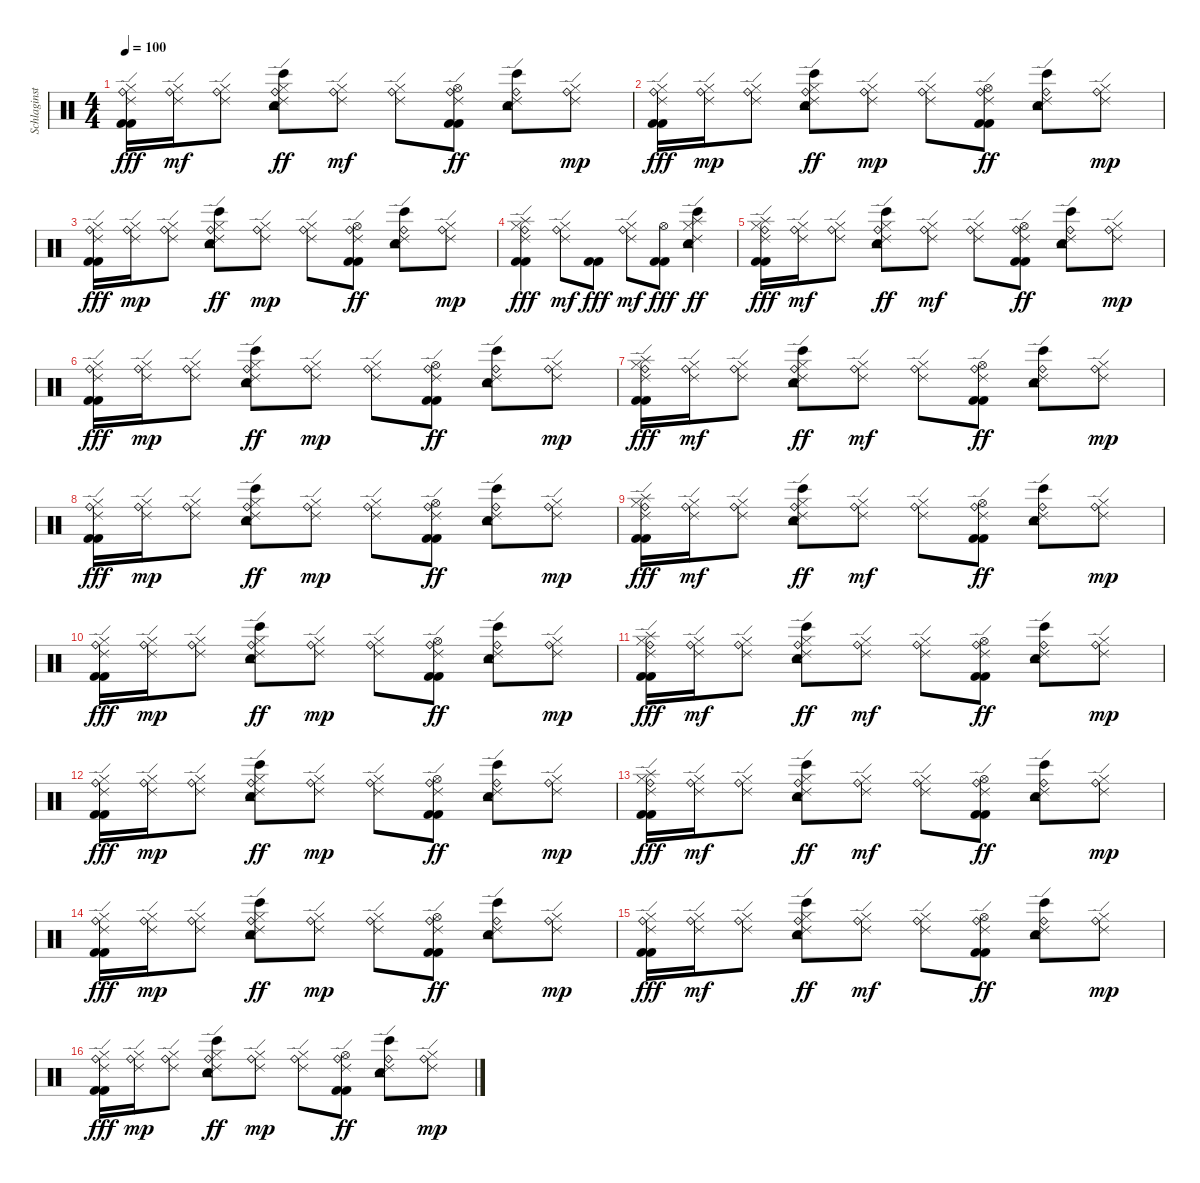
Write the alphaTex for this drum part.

\track ("Schlaginstrumente - Auswahl" "Schlaginst") {instrument percussion}
\staff {score}
\articulation defaults
\ts (4 4)
\tempo 100
\clef neutral
\ks c
("Ride (bell)" "Ride (edge) 2" "Hi-Hat (closed)" "Kick (hit) 2" "Kick (hit) 2").16{dy fff} ("Ride (bell)" "Ride (edge) 2" "Hi-Hat (closed)").16{dy mf} ("Ride (bell)" "Ride (edge) 2" "Hi-Hat (closed)").8 ("Snare (hit) 2" "Ride (bell)" "Ride (edge) 2" "Hi-Hat (closed)" "Bongo High (hit)" "Tambourine (hit)").8{dy ff} ("Ride (bell)" "Ride (edge) 2" "Hi-Hat (closed)").8{dy mf} ("Ride (bell)" "Ride (edge) 2" "Hi-Hat (closed)").8 ("Ride (bell)" "Ride (edge) 2" "Hi-Hat (open)" "Kick (hit) 2" "Kick (hit) 2").8{dy ff} ("Snare (hit) 2" "Ride (bell)" "Ride (edge) 2" "Bongo High (hit)" "Tambourine (hit)").8 ("Ride (bell)" "Ride (edge) 2" "Hi-Hat (closed)").8{dy mp} |
("Ride (bell)" "Ride (edge) 2" "Hi-Hat (closed)" "Kick (hit) 2" "Kick (hit) 2").16{dy fff} ("Ride (bell)" "Ride (edge) 2" "Hi-Hat (closed)").16{dy mp} ("Ride (bell)" "Ride (edge) 2" "Hi-Hat (closed)").8 ("Snare (hit) 2" "Ride (bell)" "Ride (edge) 2" "Hi-Hat (closed)" "Bongo High (hit)" "Tambourine (hit)").8{dy ff} ("Ride (bell)" "Ride (edge) 2" "Hi-Hat (closed)").8{dy mp} ("Ride (bell)" "Ride (edge) 2" "Hi-Hat (closed)").8 ("Ride (bell)" "Ride (edge) 2" "Hi-Hat (open)" "Kick (hit) 2" "Kick (hit) 2").8{dy ff} ("Snare (hit) 2" "Ride (bell)" "Ride (edge) 2" "Bongo High (hit)" "Tambourine (hit)").8 ("Ride (bell)" "Ride (edge) 2" "Hi-Hat (closed)").8{dy mp} |
("Ride (bell)" "Ride (edge) 2" "Hi-Hat (closed)" "Kick (hit) 2" "Kick (hit) 2").16{dy fff} ("Ride (bell)" "Ride (edge) 2" "Hi-Hat (closed)").16{dy mp} ("Ride (bell)" "Ride (edge) 2" "Hi-Hat (closed)").8 ("Snare (hit) 2" "Ride (bell)" "Ride (edge) 2" "Hi-Hat (closed)" "Bongo High (hit)" "Tambourine (hit)").8{dy ff} ("Ride (bell)" "Ride (edge) 2" "Hi-Hat (closed)").8{dy mp} ("Ride (bell)" "Ride (edge) 2" "Hi-Hat (closed)").8 ("Ride (bell)" "Ride (edge) 2" "Hi-Hat (open)" "Kick (hit) 2" "Kick (hit) 2").8{dy ff} ("Snare (hit) 2" "Ride (bell)" "Ride (edge) 2" "Bongo High (hit)" "Tambourine (hit)").8 ("Ride (bell)" "Ride (edge) 2" "Hi-Hat (closed)").8{dy mp} |
("Splash (hit)" "Ride (bell)" "Ride (edge) 2" "Hi-Hat (closed)" "Kick (hit) 2" "Kick (hit) 2").4{dy fff} ("Ride (bell)" "Ride (edge) 2" "Hi-Hat (closed)").8{dy mf} ("Kick (hit) 2" "Kick (hit) 2").8{dy fff} ("Ride (bell)" "Ride (edge) 2" "Hi-Hat (closed)").8{dy mf} ("Hi-Hat (open)" "Kick (hit) 2" "Kick (hit) 2").8{dy fff} ("Splash (hit)" "Snare (hit) 2" "Ride (edge) 2" "Hi-Hat (closed)" "Bongo High (hit)" "Tambourine (hit)").4{dy ff} |
("Splash (hit)" "Ride (bell)" "Ride (edge) 2" "Hi-Hat (closed)" "Kick (hit) 2" "Kick (hit) 2").16{dy fff volume 12} ("Ride (bell)" "Ride (edge) 2" "Hi-Hat (closed)").16{dy mf} ("Ride (bell)" "Ride (edge) 2" "Hi-Hat (closed)").8 ("Snare (hit) 2" "Ride (bell)" "Ride (edge) 2" "Hi-Hat (closed)" "Bongo High (hit)" "Tambourine (hit)").8{dy ff} ("Ride (bell)" "Ride (edge) 2" "Hi-Hat (closed)").8{dy mf} ("Ride (bell)" "Ride (edge) 2" "Hi-Hat (closed)").8 ("Ride (bell)" "Ride (edge) 2" "Hi-Hat (open)" "Kick (hit) 2" "Kick (hit) 2").8{dy ff} ("Snare (hit) 2" "Ride (bell)" "Ride (edge) 2" "Bongo High (hit)" "Tambourine (hit)").8 ("Ride (bell)" "Ride (edge) 2" "Hi-Hat (closed)").8{dy mp} |
("Ride (bell)" "Ride (edge) 2" "Hi-Hat (closed)" "Kick (hit) 2" "Kick (hit) 2").16{dy fff} ("Ride (bell)" "Ride (edge) 2" "Hi-Hat (closed)").16{dy mp} ("Ride (bell)" "Ride (edge) 2" "Hi-Hat (closed)").8 ("Snare (hit) 2" "Ride (bell)" "Ride (edge) 2" "Hi-Hat (closed)" "Bongo High (hit)" "Tambourine (hit)").8{dy ff} ("Ride (bell)" "Ride (edge) 2" "Hi-Hat (closed)").8{dy mp} ("Ride (bell)" "Ride (edge) 2" "Hi-Hat (closed)").8 ("Ride (bell)" "Ride (edge) 2" "Hi-Hat (open)" "Kick (hit) 2" "Kick (hit) 2").8{dy ff} ("Snare (hit) 2" "Ride (bell)" "Ride (edge) 2" "Bongo High (hit)" "Tambourine (hit)").8 ("Ride (bell)" "Ride (edge) 2" "Hi-Hat (closed)").8{dy mp} |
("Splash (hit)" "Ride (bell)" "Ride (edge) 2" "Hi-Hat (closed)" "Kick (hit) 2" "Kick (hit) 2").16{dy fff} ("Ride (bell)" "Ride (edge) 2" "Hi-Hat (closed)").16{dy mf} ("Ride (bell)" "Ride (edge) 2" "Hi-Hat (closed)").8 ("Snare (hit) 2" "Ride (bell)" "Ride (edge) 2" "Hi-Hat (closed)" "Bongo High (hit)" "Tambourine (hit)").8{dy ff} ("Ride (bell)" "Ride (edge) 2" "Hi-Hat (closed)").8{dy mf} ("Ride (bell)" "Ride (edge) 2" "Hi-Hat (closed)").8 ("Ride (bell)" "Ride (edge) 2" "Hi-Hat (open)" "Kick (hit) 2" "Kick (hit) 2").8{dy ff} ("Snare (hit) 2" "Ride (bell)" "Ride (edge) 2" "Bongo High (hit)" "Tambourine (hit)").8 ("Ride (bell)" "Ride (edge) 2" "Hi-Hat (closed)").8{dy mp} |
("Ride (bell)" "Ride (edge) 2" "Hi-Hat (closed)" "Kick (hit) 2" "Kick (hit) 2").16{dy fff} ("Ride (bell)" "Ride (edge) 2" "Hi-Hat (closed)").16{dy mp} ("Ride (bell)" "Ride (edge) 2" "Hi-Hat (closed)").8 ("Snare (hit) 2" "Ride (bell)" "Ride (edge) 2" "Hi-Hat (closed)" "Bongo High (hit)" "Tambourine (hit)").8{dy ff} ("Ride (bell)" "Ride (edge) 2" "Hi-Hat (closed)").8{dy mp} ("Ride (bell)" "Ride (edge) 2" "Hi-Hat (closed)").8 ("Ride (bell)" "Ride (edge) 2" "Hi-Hat (open)" "Kick (hit) 2" "Kick (hit) 2").8{dy ff} ("Snare (hit) 2" "Ride (bell)" "Ride (edge) 2" "Bongo High (hit)" "Tambourine (hit)").8 ("Ride (bell)" "Ride (edge) 2" "Hi-Hat (closed)").8{dy mp} |
("Splash (hit)" "Ride (bell)" "Ride (edge) 2" "Hi-Hat (closed)" "Kick (hit) 2" "Kick (hit) 2").16{dy fff} ("Ride (bell)" "Ride (edge) 2" "Hi-Hat (closed)").16{dy mf} ("Ride (bell)" "Ride (edge) 2" "Hi-Hat (closed)").8 ("Snare (hit) 2" "Ride (bell)" "Ride (edge) 2" "Hi-Hat (closed)" "Bongo High (hit)" "Tambourine (hit)").8{dy ff} ("Ride (bell)" "Ride (edge) 2" "Hi-Hat (closed)").8{dy mf} ("Ride (bell)" "Ride (edge) 2" "Hi-Hat (closed)").8 ("Ride (bell)" "Ride (edge) 2" "Hi-Hat (open)" "Kick (hit) 2" "Kick (hit) 2").8{dy ff} ("Snare (hit) 2" "Ride (bell)" "Ride (edge) 2" "Bongo High (hit)" "Tambourine (hit)").8 ("Ride (bell)" "Ride (edge) 2" "Hi-Hat (closed)").8{dy mp} |
("Ride (bell)" "Ride (edge) 2" "Hi-Hat (closed)" "Kick (hit) 2" "Kick (hit) 2").16{dy fff} ("Ride (bell)" "Ride (edge) 2" "Hi-Hat (closed)").16{dy mp} ("Ride (bell)" "Ride (edge) 2" "Hi-Hat (closed)").8 ("Snare (hit) 2" "Ride (bell)" "Ride (edge) 2" "Hi-Hat (closed)" "Bongo High (hit)" "Tambourine (hit)").8{dy ff} ("Ride (bell)" "Ride (edge) 2" "Hi-Hat (closed)").8{dy mp} ("Ride (bell)" "Ride (edge) 2" "Hi-Hat (closed)").8 ("Ride (bell)" "Ride (edge) 2" "Hi-Hat (open)" "Kick (hit) 2" "Kick (hit) 2").8{dy ff} ("Snare (hit) 2" "Ride (bell)" "Ride (edge) 2" "Bongo High (hit)" "Tambourine (hit)").8 ("Ride (bell)" "Ride (edge) 2" "Hi-Hat (closed)").8{dy mp} |
("Splash (hit)" "Ride (bell)" "Ride (edge) 2" "Hi-Hat (closed)" "Kick (hit) 2" "Kick (hit) 2").16{dy fff} ("Ride (bell)" "Ride (edge) 2" "Hi-Hat (closed)").16{dy mf} ("Ride (bell)" "Ride (edge) 2" "Hi-Hat (closed)").8 ("Snare (hit) 2" "Ride (bell)" "Ride (edge) 2" "Hi-Hat (closed)" "Bongo High (hit)" "Tambourine (hit)").8{dy ff} ("Ride (bell)" "Ride (edge) 2" "Hi-Hat (closed)").8{dy mf} ("Ride (bell)" "Ride (edge) 2" "Hi-Hat (closed)").8 ("Ride (bell)" "Ride (edge) 2" "Hi-Hat (open)" "Kick (hit) 2" "Kick (hit) 2").8{dy ff} ("Snare (hit) 2" "Ride (bell)" "Ride (edge) 2" "Bongo High (hit)" "Tambourine (hit)").8 ("Ride (bell)" "Ride (edge) 2" "Hi-Hat (closed)").8{dy mp} |
("Ride (bell)" "Ride (edge) 2" "Hi-Hat (closed)" "Kick (hit) 2" "Kick (hit) 2").16{dy fff} ("Ride (bell)" "Ride (edge) 2" "Hi-Hat (closed)").16{dy mp} ("Ride (bell)" "Ride (edge) 2" "Hi-Hat (closed)").8 ("Snare (hit) 2" "Ride (bell)" "Ride (edge) 2" "Hi-Hat (closed)" "Bongo High (hit)" "Tambourine (hit)").8{dy ff} ("Ride (bell)" "Ride (edge) 2" "Hi-Hat (closed)").8{dy mp} ("Ride (bell)" "Ride (edge) 2" "Hi-Hat (closed)").8 ("Ride (bell)" "Ride (edge) 2" "Hi-Hat (open)" "Kick (hit) 2" "Kick (hit) 2").8{dy ff} ("Snare (hit) 2" "Ride (bell)" "Ride (edge) 2" "Bongo High (hit)" "Tambourine (hit)").8 ("Ride (bell)" "Ride (edge) 2" "Hi-Hat (closed)").8{dy mp} |
("Splash (hit)" "Ride (bell)" "Ride (edge) 2" "Hi-Hat (closed)" "Kick (hit) 2" "Kick (hit) 2").16{dy fff volume 11} ("Ride (bell)" "Ride (edge) 2" "Hi-Hat (closed)").16{dy mf} ("Ride (bell)" "Ride (edge) 2" "Hi-Hat (closed)").8 ("Snare (hit) 2" "Ride (bell)" "Ride (edge) 2" "Hi-Hat (closed)" "Bongo High (hit)" "Tambourine (hit)").8{dy ff} ("Ride (bell)" "Ride (edge) 2" "Hi-Hat (closed)").8{dy mf} ("Ride (bell)" "Ride (edge) 2" "Hi-Hat (closed)").8 ("Ride (bell)" "Ride (edge) 2" "Hi-Hat (open)" "Kick (hit) 2" "Kick (hit) 2").8{dy ff} ("Snare (hit) 2" "Ride (bell)" "Ride (edge) 2" "Bongo High (hit)" "Tambourine (hit)").8 ("Ride (bell)" "Ride (edge) 2" "Hi-Hat (closed)").8{dy mp} |
("Ride (bell)" "Ride (edge) 2" "Hi-Hat (closed)" "Kick (hit) 2" "Kick (hit) 2").16{dy fff} ("Ride (bell)" "Ride (edge) 2" "Hi-Hat (closed)").16{dy mp} ("Ride (bell)" "Ride (edge) 2" "Hi-Hat (closed)").8 ("Snare (hit) 2" "Ride (bell)" "Ride (edge) 2" "Hi-Hat (closed)" "Bongo High (hit)" "Tambourine (hit)").8{dy ff} ("Ride (bell)" "Ride (edge) 2" "Hi-Hat (closed)").8{dy mp} ("Ride (bell)" "Ride (edge) 2" "Hi-Hat (closed)").8 ("Ride (bell)" "Ride (edge) 2" "Hi-Hat (open)" "Kick (hit) 2" "Kick (hit) 2").8{dy ff} ("Snare (hit) 2" "Ride (bell)" "Ride (edge) 2" "Bongo High (hit)" "Tambourine (hit)").8 ("Ride (bell)" "Ride (edge) 2" "Hi-Hat (closed)").8{dy mp} |
("Ride (bell)" "Ride (edge) 2" "Hi-Hat (closed)" "Kick (hit) 2" "Kick (hit) 2").16{dy fff} ("Ride (bell)" "Ride (edge) 2" "Hi-Hat (closed)").16{dy mf} ("Ride (bell)" "Ride (edge) 2" "Hi-Hat (closed)").8 ("Snare (hit) 2" "Ride (bell)" "Ride (edge) 2" "Hi-Hat (closed)" "Bongo High (hit)" "Tambourine (hit)").8{dy ff} ("Ride (bell)" "Ride (edge) 2" "Hi-Hat (closed)").8{dy mf} ("Ride (bell)" "Ride (edge) 2" "Hi-Hat (closed)").8 ("Ride (bell)" "Ride (edge) 2" "Hi-Hat (open)" "Kick (hit) 2" "Kick (hit) 2").8{dy ff} ("Snare (hit) 2" "Ride (bell)" "Ride (edge) 2" "Bongo High (hit)" "Tambourine (hit)").8 ("Ride (bell)" "Ride (edge) 2" "Hi-Hat (closed)").8{dy mp} |
("Ride (bell)" "Ride (edge) 2" "Hi-Hat (closed)" "Kick (hit) 2" "Kick (hit) 2").16{dy fff} ("Ride (bell)" "Ride (edge) 2" "Hi-Hat (closed)").16{dy mp} ("Ride (bell)" "Ride (edge) 2" "Hi-Hat (closed)").8 ("Snare (hit) 2" "Ride (bell)" "Ride (edge) 2" "Hi-Hat (closed)" "Bongo High (hit)" "Tambourine (hit)").8{dy ff} ("Ride (bell)" "Ride (edge) 2" "Hi-Hat (closed)").8{dy mp} ("Ride (bell)" "Ride (edge) 2" "Hi-Hat (closed)").8 ("Ride (bell)" "Ride (edge) 2" "Hi-Hat (open)" "Kick (hit) 2" "Kick (hit) 2").8{dy ff} ("Snare (hit) 2" "Ride (bell)" "Ride (edge) 2" "Bongo High (hit)" "Tambourine (hit)").8 ("Ride (bell)" "Ride (edge) 2" "Hi-Hat (closed)").8{dy mp}
